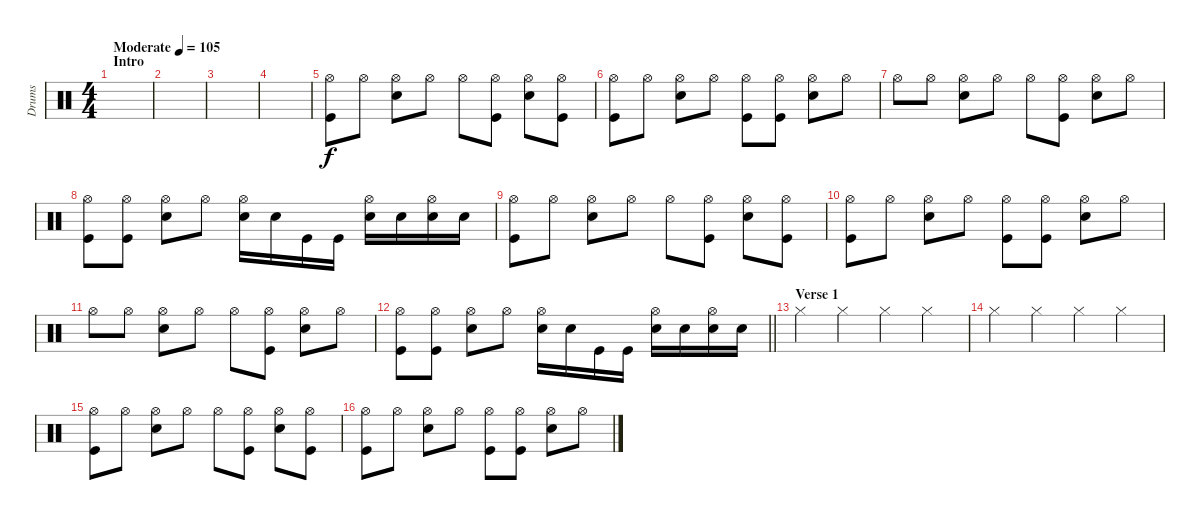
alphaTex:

\track ("Drums" "Drums") {instrument percussion}
\staff {score}
\articulation defaults
\ts (4 4)
\section ("" "Intro")
\tempo (105 "Moderate")
\clef neutral
\ks c
|
|
|
|
("Kick (hit)" "Hi-Hat (open)").8 "Hi-Hat (open)".8 ("Snare (hit) 2" "Hi-Hat (open)").8 "Hi-Hat (open)".8 "Hi-Hat (open)".8 ("Kick (hit)" "Hi-Hat (open)").8 ("Snare (hit) 2" "Hi-Hat (open)").8 ("Kick (hit)" "Hi-Hat (open)").8 |
("Kick (hit)" "Hi-Hat (open)").8 "Hi-Hat (open)".8 ("Snare (hit) 2" "Hi-Hat (open)").8 "Hi-Hat (open)".8 ("Kick (hit)" "Hi-Hat (open)").8 ("Kick (hit)" "Hi-Hat (open)").8 ("Snare (hit) 2" "Hi-Hat (open)").8 "Hi-Hat (open)".8 |
"Hi-Hat (open)".8 "Hi-Hat (open)".8 ("Snare (hit) 2" "Hi-Hat (open)").8 "Hi-Hat (open)".8 "Hi-Hat (open)".8 ("Kick (hit)" "Hi-Hat (open)").8 ("Snare (hit) 2" "Hi-Hat (open)").8 "Hi-Hat (open)".8 |
("Kick (hit)" "Hi-Hat (open)").8 ("Kick (hit)" "Hi-Hat (open)").8 ("Snare (hit) 2" "Hi-Hat (open)").8 "Hi-Hat (open)".8 ("Snare (hit) 2" "Hi-Hat (open)").16 "Snare (hit) 2".16 "Kick (hit)".16 "Kick (hit)".16 ("Snare (hit) 2" "Hi-Hat (open)").16 "Snare (hit) 2".16 ("Snare (hit) 2" "Hi-Hat (open)").16 "Snare (hit) 2".16 |
("Kick (hit)" "Hi-Hat (open)").8 "Hi-Hat (open)".8 ("Snare (hit) 2" "Hi-Hat (open)").8 "Hi-Hat (open)".8 "Hi-Hat (open)".8 ("Kick (hit)" "Hi-Hat (open)").8 ("Snare (hit) 2" "Hi-Hat (open)").8 ("Kick (hit)" "Hi-Hat (open)").8 |
("Kick (hit)" "Hi-Hat (open)").8 "Hi-Hat (open)".8 ("Snare (hit) 2" "Hi-Hat (open)").8 "Hi-Hat (open)".8 ("Kick (hit)" "Hi-Hat (open)").8 ("Kick (hit)" "Hi-Hat (open)").8 ("Snare (hit) 2" "Hi-Hat (open)").8 "Hi-Hat (open)".8 |
"Hi-Hat (open)".8 "Hi-Hat (open)".8 ("Snare (hit) 2" "Hi-Hat (open)").8 "Hi-Hat (open)".8 "Hi-Hat (open)".8 ("Kick (hit)" "Hi-Hat (open)").8 ("Snare (hit) 2" "Hi-Hat (open)").8 "Hi-Hat (open)".8 |
\barLineRight lightlight
("Kick (hit)" "Hi-Hat (open)").8 ("Kick (hit)" "Hi-Hat (open)").8 ("Snare (hit) 2" "Hi-Hat (open)").8 "Hi-Hat (open)".8 ("Snare (hit) 2" "Hi-Hat (open)").16 "Snare (hit) 2".16 "Kick (hit)".16 "Kick (hit)".16 ("Snare (hit) 2" "Hi-Hat (open)").16 "Snare (hit) 2".16 ("Snare (hit) 2" "Hi-Hat (open)").16 "Snare (hit) 2".16 |
\section ("" "Verse 1")
"Hi-Hat (closed)".4 "Hi-Hat (closed)".4 "Hi-Hat (closed)".4 "Hi-Hat (closed)".4 |
"Hi-Hat (closed)".4 "Hi-Hat (closed)".4 "Hi-Hat (closed)".4 "Hi-Hat (closed)".4 |
("Kick (hit)" "Hi-Hat (open)").8 "Hi-Hat (open)".8 ("Snare (hit) 2" "Hi-Hat (open)").8 "Hi-Hat (open)".8 "Hi-Hat (open)".8 ("Kick (hit)" "Hi-Hat (open)").8 ("Snare (hit) 2" "Hi-Hat (open)").8 ("Kick (hit)" "Hi-Hat (open)").8 |
("Kick (hit)" "Hi-Hat (open)").8 "Hi-Hat (open)".8 ("Snare (hit) 2" "Hi-Hat (open)").8 "Hi-Hat (open)".8 ("Kick (hit)" "Hi-Hat (open)").8 ("Kick (hit)" "Hi-Hat (open)").8 ("Snare (hit) 2" "Hi-Hat (open)").8 "Hi-Hat (open)".8
